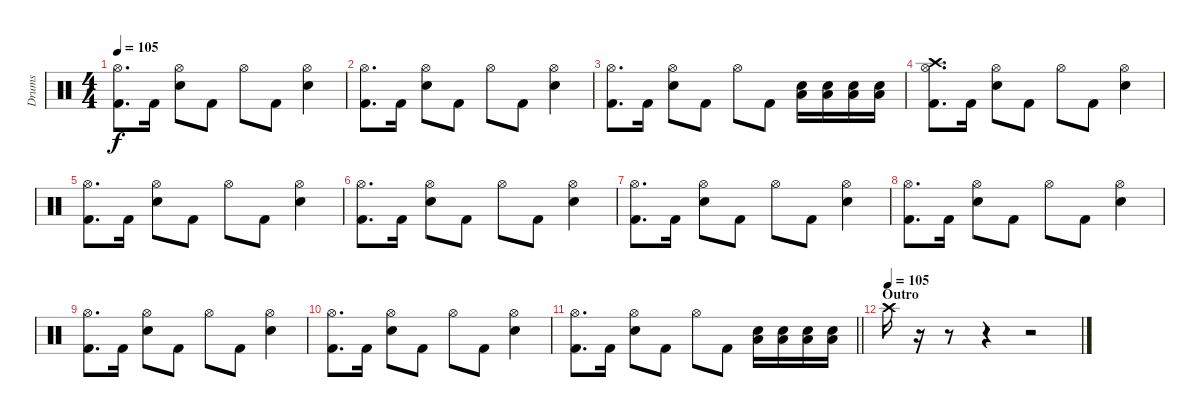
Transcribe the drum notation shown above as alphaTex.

\track ("Drums" "Drums") {instrument percussion}
\staff {score}
\articulation defaults
\ts (4 4)
\tempo 105
\clef neutral
\ks aminor
("Hi-Hat (open)" "Kick (hit) 2").8{d dy f} "Kick (hit) 2".16 ("Snare (hit) 2" "Hi-Hat (open)").8 "Kick (hit) 2".8 "Hi-Hat (open)".8 "Kick (hit) 2".8 ("Snare (hit) 2" "Hi-Hat (open)").4 |
("Hi-Hat (open)" "Kick (hit) 2").8{d} "Kick (hit) 2".16 ("Snare (hit) 2" "Hi-Hat (open)").8 "Kick (hit) 2".8 "Hi-Hat (open)".8 "Kick (hit) 2".8 ("Snare (hit) 2" "Hi-Hat (open)").4 |
("Hi-Hat (open)" "Kick (hit) 2").8{d} "Kick (hit) 2".16 ("Snare (hit) 2" "Hi-Hat (open)").8 "Kick (hit) 2".8 "Hi-Hat (open)".8 "Kick (hit) 2".8 ("Snare (hit) 2" "Low Floor Tom (hit)").16 ("Snare (hit) 2" "Low Floor Tom (hit)").16 ("Snare (hit) 2" "Low Floor Tom (hit)").16 ("Snare (hit) 2" "Low Floor Tom (hit)").16 |
("Crash high (hit)" "Hi-Hat (open)" "Kick (hit) 2").8{d} "Kick (hit) 2".16 ("Snare (hit) 2" "Hi-Hat (open)").8 "Kick (hit) 2".8 "Hi-Hat (open)".8 "Kick (hit) 2".8 ("Snare (hit) 2" "Hi-Hat (open)").4 |
("Hi-Hat (open)" "Kick (hit) 2").8{d} "Kick (hit) 2".16 ("Snare (hit) 2" "Hi-Hat (open)").8 "Kick (hit) 2".8 "Hi-Hat (open)".8 "Kick (hit) 2".8 ("Snare (hit) 2" "Hi-Hat (open)").4 |
("Hi-Hat (open)" "Kick (hit) 2").8{d} "Kick (hit) 2".16 ("Snare (hit) 2" "Hi-Hat (open)").8 "Kick (hit) 2".8 "Hi-Hat (open)".8 "Kick (hit) 2".8 ("Snare (hit) 2" "Hi-Hat (open)").4 |
("Hi-Hat (open)" "Kick (hit) 2").8{d} "Kick (hit) 2".16 ("Snare (hit) 2" "Hi-Hat (open)").8 "Kick (hit) 2".8 "Hi-Hat (open)".8 "Kick (hit) 2".8 ("Snare (hit) 2" "Hi-Hat (open)").4 |
("Hi-Hat (open)" "Kick (hit) 2").8{d} "Kick (hit) 2".16 ("Snare (hit) 2" "Hi-Hat (open)").8 "Kick (hit) 2".8 "Hi-Hat (open)".8 "Kick (hit) 2".8 ("Snare (hit) 2" "Hi-Hat (open)").4 |
("Hi-Hat (open)" "Kick (hit) 2").8{d} "Kick (hit) 2".16 ("Snare (hit) 2" "Hi-Hat (open)").8 "Kick (hit) 2".8 "Hi-Hat (open)".8 "Kick (hit) 2".8 ("Snare (hit) 2" "Hi-Hat (open)").4 |
("Hi-Hat (open)" "Kick (hit) 2").8{d} "Kick (hit) 2".16 ("Snare (hit) 2" "Hi-Hat (open)").8 "Kick (hit) 2".8 "Hi-Hat (open)".8 "Kick (hit) 2".8 ("Snare (hit) 2" "Hi-Hat (open)").4 |
\barLineRight lightlight
("Hi-Hat (open)" "Kick (hit) 2").8{d} "Kick (hit) 2".16 ("Snare (hit) 2" "Hi-Hat (open)").8 "Kick (hit) 2".8 "Hi-Hat (open)".8 "Kick (hit) 2".8 ("Snare (hit) 2" "Low Floor Tom (hit)").16 ("Snare (hit) 2" "Low Floor Tom (hit)").16 ("Snare (hit) 2" "Low Floor Tom (hit)").16 ("Snare (hit) 2" "Low Floor Tom (hit)").16 |
\section ("" "Outro")
\tempo (105)
"Crash high (hit)".16 r.16 r.8 r.4 r.2
